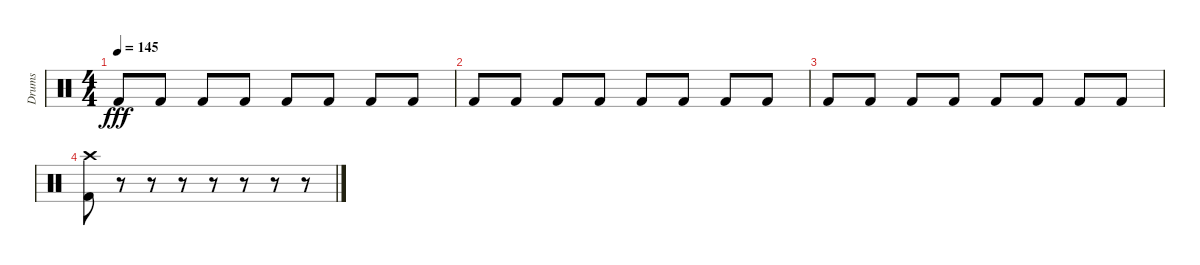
\track ("Drums" "Drums") {instrument percussion}
\staff {score}
\articulation defaults
\ts (4 4)
\tempo 145
\clef neutral
\ks c "Kick (hit) 2".8{dy fff} "Kick (hit) 2".8 "Kick (hit) 2".8 "Kick (hit) 2".8 "Kick (hit) 2".8 "Kick (hit) 2".8 "Kick (hit) 2".8 "Kick (hit) 2".8
|
"Kick (hit) 2".8 "Kick (hit) 2".8 "Kick (hit) 2".8 "Kick (hit) 2".8 "Kick (hit) 2".8 "Kick (hit) 2".8 "Kick (hit) 2".8 "Kick (hit) 2".8 |
"Kick (hit) 2".8 "Kick (hit) 2".8 "Kick (hit) 2".8 "Kick (hit) 2".8 "Kick (hit) 2".8 "Kick (hit) 2".8 "Kick (hit) 2".8 "Kick (hit) 2".8 |
("Crash high (hit)" "Kick (hit) 2").8 r.8 r.8 r.8 r.8 r.8 r.8 r.8
